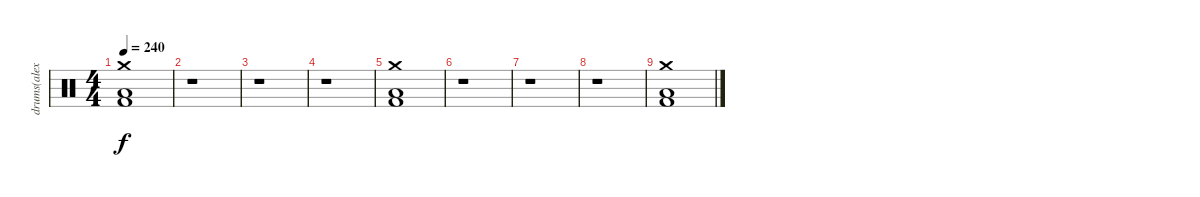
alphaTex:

\track ("drums(alex holzshwart)" "drums(alex") {instrument percussion}
\staff {score}
\articulation defaults
\ts (4 4)
\tempo 240
\clef neutral
\ks c
("Crash medium (hit)" "Low Floor Tom (hit)" "Kick (hit) 2").1{dy f} |
r.1 |
r.1 |
r.1 |
("Crash medium (hit)" "Low Floor Tom (hit)" "Kick (hit) 2").1 |
r.1 |
r.1 |
r.1 |
("Crash medium (hit)" "Low Floor Tom (hit)" "Kick (hit) 2").1
